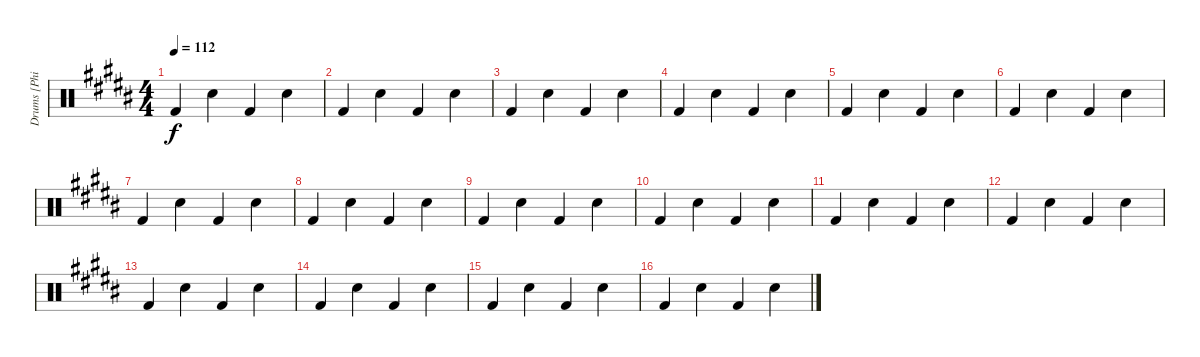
\track ("Drums [Phill]" "Drums [Phi") {instrument percussion}
\staff {score}
\articulation defaults
\ts (4 4)
\tempo 112
\clef neutral
\ks b "Kick (hit) 2".4{dy f} "Snare (hit) 2".4 "Kick (hit) 2".4 "Snare (hit) 2".4
|
"Kick (hit) 2".4 "Snare (hit) 2".4 "Kick (hit) 2".4 "Snare (hit) 2".4 |
"Kick (hit) 2".4 "Snare (hit) 2".4 "Kick (hit) 2".4 "Snare (hit) 2".4 |
"Kick (hit) 2".4 "Snare (hit) 2".4 "Kick (hit) 2".4 "Snare (hit) 2".4 |
"Kick (hit) 2".4 "Snare (hit) 2".4 "Kick (hit) 2".4 "Snare (hit) 2".4 |
"Kick (hit) 2".4 "Snare (hit) 2".4 "Kick (hit) 2".4 "Snare (hit) 2".4 |
"Kick (hit) 2".4 "Snare (hit) 2".4 "Kick (hit) 2".4 "Snare (hit) 2".4 |
"Kick (hit) 2".4 "Snare (hit) 2".4 "Kick (hit) 2".4 "Snare (hit) 2".4 |
"Kick (hit) 2".4 "Snare (hit) 2".4 "Kick (hit) 2".4 "Snare (hit) 2".4 |
"Kick (hit) 2".4 "Snare (hit) 2".4 "Kick (hit) 2".4 "Snare (hit) 2".4 |
"Kick (hit) 2".4 "Snare (hit) 2".4 "Kick (hit) 2".4 "Snare (hit) 2".4 |
"Kick (hit) 2".4 "Snare (hit) 2".4 "Kick (hit) 2".4 "Snare (hit) 2".4 |
"Kick (hit) 2".4 "Snare (hit) 2".4 "Kick (hit) 2".4 "Snare (hit) 2".4 |
"Kick (hit) 2".4 "Snare (hit) 2".4 "Kick (hit) 2".4 "Snare (hit) 2".4 |
"Kick (hit) 2".4 "Snare (hit) 2".4 "Kick (hit) 2".4 "Snare (hit) 2".4 |
"Kick (hit) 2".4 "Snare (hit) 2".4 "Kick (hit) 2".4 "Snare (hit) 2".4
